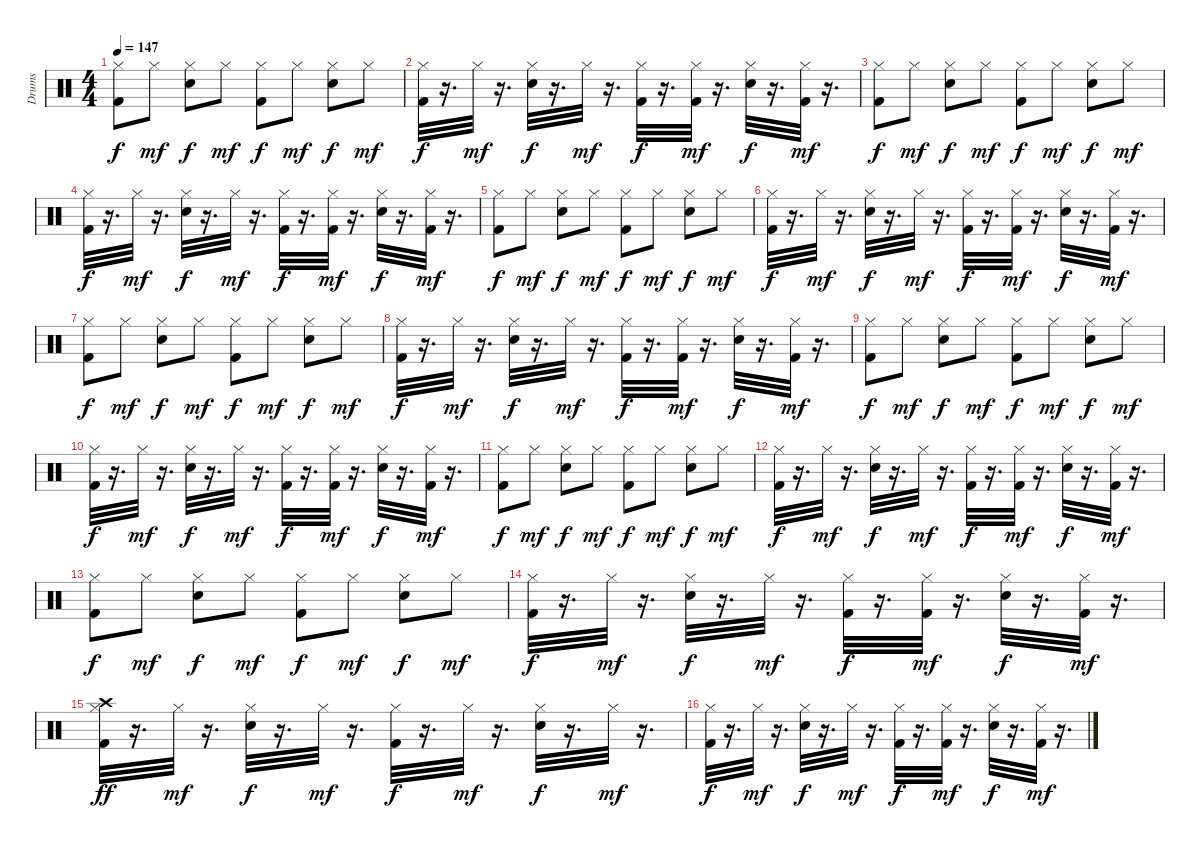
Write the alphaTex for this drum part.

\track ("Drums" "Drums") {instrument percussion}
\staff {score}
\articulation defaults
\ts (4 4)
\tempo 147
\clef neutral
\ks c
("Hi-Hat (closed)" "Kick (hit) 2").8{dy f} "Hi-Hat (closed)".8{dy mf} ("Hi-Hat (closed)" "Snare (hit) 2").8{dy f} "Hi-Hat (closed)".8{dy mf} ("Hi-Hat (closed)" "Kick (hit) 2").8{dy f} "Hi-Hat (closed)".8{dy mf} ("Hi-Hat (closed)" "Snare (hit) 2").8{dy f} "Hi-Hat (closed)".8{dy mf} |
("Kick (hit) 2" "Hi-Hat (closed)").32{dy f} r.16{d} "Hi-Hat (closed)".32{dy mf} r.16{d} ("Snare (hit) 2" "Hi-Hat (closed)").32{dy f} r.16{d} "Hi-Hat (closed)".32{dy mf} r.16{d} ("Kick (hit) 2" "Hi-Hat (closed)").32{dy f} r.16{d} ("Kick (hit) 2" "Hi-Hat (closed)").32{dy mf} r.16{d} ("Snare (hit) 2" "Hi-Hat (closed)").32{dy f} r.16{d} ("Kick (hit) 2" "Hi-Hat (closed)").32{dy mf} r.16{d} |
("Hi-Hat (closed)" "Kick (hit) 2").8{dy f} "Hi-Hat (closed)".8{dy mf} ("Hi-Hat (closed)" "Snare (hit) 2").8{dy f} "Hi-Hat (closed)".8{dy mf} ("Hi-Hat (closed)" "Kick (hit) 2").8{dy f} "Hi-Hat (closed)".8{dy mf} ("Hi-Hat (closed)" "Snare (hit) 2").8{dy f} "Hi-Hat (closed)".8{dy mf} |
("Kick (hit) 2" "Hi-Hat (closed)").32{dy f} r.16{d} "Hi-Hat (closed)".32{dy mf} r.16{d} ("Snare (hit) 2" "Hi-Hat (closed)").32{dy f} r.16{d} "Hi-Hat (closed)".32{dy mf} r.16{d} ("Kick (hit) 2" "Hi-Hat (closed)").32{dy f} r.16{d} ("Kick (hit) 2" "Hi-Hat (closed)").32{dy mf} r.16{d} ("Snare (hit) 2" "Hi-Hat (closed)").32{dy f} r.16{d} ("Kick (hit) 2" "Hi-Hat (closed)").32{dy mf} r.16{d} |
("Hi-Hat (closed)" "Kick (hit) 2").8{dy f} "Hi-Hat (closed)".8{dy mf} ("Hi-Hat (closed)" "Snare (hit) 2").8{dy f} "Hi-Hat (closed)".8{dy mf} ("Hi-Hat (closed)" "Kick (hit) 2").8{dy f} "Hi-Hat (closed)".8{dy mf} ("Hi-Hat (closed)" "Snare (hit) 2").8{dy f} "Hi-Hat (closed)".8{dy mf} |
("Kick (hit) 2" "Hi-Hat (closed)").32{dy f} r.16{d} "Hi-Hat (closed)".32{dy mf} r.16{d} ("Snare (hit) 2" "Hi-Hat (closed)").32{dy f} r.16{d} "Hi-Hat (closed)".32{dy mf} r.16{d} ("Kick (hit) 2" "Hi-Hat (closed)").32{dy f} r.16{d} ("Kick (hit) 2" "Hi-Hat (closed)").32{dy mf} r.16{d} ("Snare (hit) 2" "Hi-Hat (closed)").32{dy f} r.16{d} ("Kick (hit) 2" "Hi-Hat (closed)").32{dy mf} r.16{d} |
("Hi-Hat (closed)" "Kick (hit) 2").8{dy f} "Hi-Hat (closed)".8{dy mf} ("Hi-Hat (closed)" "Snare (hit) 2").8{dy f} "Hi-Hat (closed)".8{dy mf} ("Hi-Hat (closed)" "Kick (hit) 2").8{dy f} "Hi-Hat (closed)".8{dy mf} ("Hi-Hat (closed)" "Snare (hit) 2").8{dy f} "Hi-Hat (closed)".8{dy mf} |
("Kick (hit) 2" "Hi-Hat (closed)").32{dy f} r.16{d} "Hi-Hat (closed)".32{dy mf} r.16{d} ("Snare (hit) 2" "Hi-Hat (closed)").32{dy f} r.16{d} "Hi-Hat (closed)".32{dy mf} r.16{d} ("Kick (hit) 2" "Hi-Hat (closed)").32{dy f} r.16{d} ("Kick (hit) 2" "Hi-Hat (closed)").32{dy mf} r.16{d} ("Snare (hit) 2" "Hi-Hat (closed)").32{dy f} r.16{d} ("Kick (hit) 2" "Hi-Hat (closed)").32{dy mf} r.16{d} |
("Hi-Hat (closed)" "Kick (hit) 2").8{dy f} "Hi-Hat (closed)".8{dy mf} ("Hi-Hat (closed)" "Snare (hit) 2").8{dy f} "Hi-Hat (closed)".8{dy mf} ("Hi-Hat (closed)" "Kick (hit) 2").8{dy f} "Hi-Hat (closed)".8{dy mf} ("Hi-Hat (closed)" "Snare (hit) 2").8{dy f} "Hi-Hat (closed)".8{dy mf} |
("Kick (hit) 2" "Hi-Hat (closed)").32{dy f} r.16{d} "Hi-Hat (closed)".32{dy mf} r.16{d} ("Snare (hit) 2" "Hi-Hat (closed)").32{dy f} r.16{d} "Hi-Hat (closed)".32{dy mf} r.16{d} ("Kick (hit) 2" "Hi-Hat (closed)").32{dy f} r.16{d} ("Kick (hit) 2" "Hi-Hat (closed)").32{dy mf} r.16{d} ("Snare (hit) 2" "Hi-Hat (closed)").32{dy f} r.16{d} ("Kick (hit) 2" "Hi-Hat (closed)").32{dy mf} r.16{d} |
("Hi-Hat (closed)" "Kick (hit) 2").8{dy f} "Hi-Hat (closed)".8{dy mf} ("Hi-Hat (closed)" "Snare (hit) 2").8{dy f} "Hi-Hat (closed)".8{dy mf} ("Hi-Hat (closed)" "Kick (hit) 2").8{dy f} "Hi-Hat (closed)".8{dy mf} ("Hi-Hat (closed)" "Snare (hit) 2").8{dy f} "Hi-Hat (closed)".8{dy mf} |
("Kick (hit) 2" "Hi-Hat (closed)").32{dy f} r.16{d} "Hi-Hat (closed)".32{dy mf} r.16{d} ("Snare (hit) 2" "Hi-Hat (closed)").32{dy f} r.16{d} "Hi-Hat (closed)".32{dy mf} r.16{d} ("Kick (hit) 2" "Hi-Hat (closed)").32{dy f} r.16{d} ("Kick (hit) 2" "Hi-Hat (closed)").32{dy mf} r.16{d} ("Snare (hit) 2" "Hi-Hat (closed)").32{dy f} r.16{d} ("Kick (hit) 2" "Hi-Hat (closed)").32{dy mf} r.16{d} |
("Hi-Hat (closed)" "Kick (hit) 2").8{dy f} "Hi-Hat (closed)".8{dy mf} ("Hi-Hat (closed)" "Snare (hit) 2").8{dy f} "Hi-Hat (closed)".8{dy mf} ("Hi-Hat (closed)" "Kick (hit) 2").8{dy f} "Hi-Hat (closed)".8{dy mf} ("Hi-Hat (closed)" "Snare (hit) 2").8{dy f} "Hi-Hat (closed)".8{dy mf} |
("Kick (hit) 2" "Hi-Hat (closed)").32{dy f} r.16{d} "Hi-Hat (closed)".32{dy mf} r.16{d} ("Snare (hit) 2" "Hi-Hat (closed)").32{dy f} r.16{d} "Hi-Hat (closed)".32{dy mf} r.16{d} ("Hi-Hat (closed)" "Kick (hit) 2").32{dy f} r.16{d} ("Kick (hit) 2" "Hi-Hat (closed)").32{dy mf} r.16{d} ("Snare (hit) 2" "Hi-Hat (closed)").32{dy f} r.16{d} ("Kick (hit) 2" "Hi-Hat (closed)").32{dy mf} r.16{d} |
("Kick (hit) 2" "Hi-Hat (closed)" "Crash high (hit)").32{dy ff} r.16{d} "Hi-Hat (closed)".32{dy mf} r.16{d} ("Snare (hit) 2" "Hi-Hat (closed)").32{dy f} r.16{d} "Hi-Hat (closed)".32{dy mf} r.16{d} ("Kick (hit) 2" "Hi-Hat (closed)").32{dy f} r.16{d} "Hi-Hat (closed)".32{dy mf} r.16{d} ("Snare (hit) 2" "Hi-Hat (closed)").32{dy f} r.16{d} "Hi-Hat (closed)".32{dy mf} r.16{d} |
("Kick (hit) 2" "Hi-Hat (closed)").32{dy f} r.16{d} "Hi-Hat (closed)".32{dy mf} r.16{d} ("Snare (hit) 2" "Hi-Hat (closed)").32{dy f} r.16{d} "Hi-Hat (closed)".32{dy mf} r.16{d} ("Kick (hit) 2" "Hi-Hat (closed)").32{dy f} r.16{d} ("Kick (hit) 2" "Hi-Hat (closed)").32{dy mf} r.16{d} ("Snare (hit) 2" "Hi-Hat (closed)").32{dy f} r.16{d} ("Kick (hit) 2" "Hi-Hat (closed)").32{dy mf} r.16{d}
